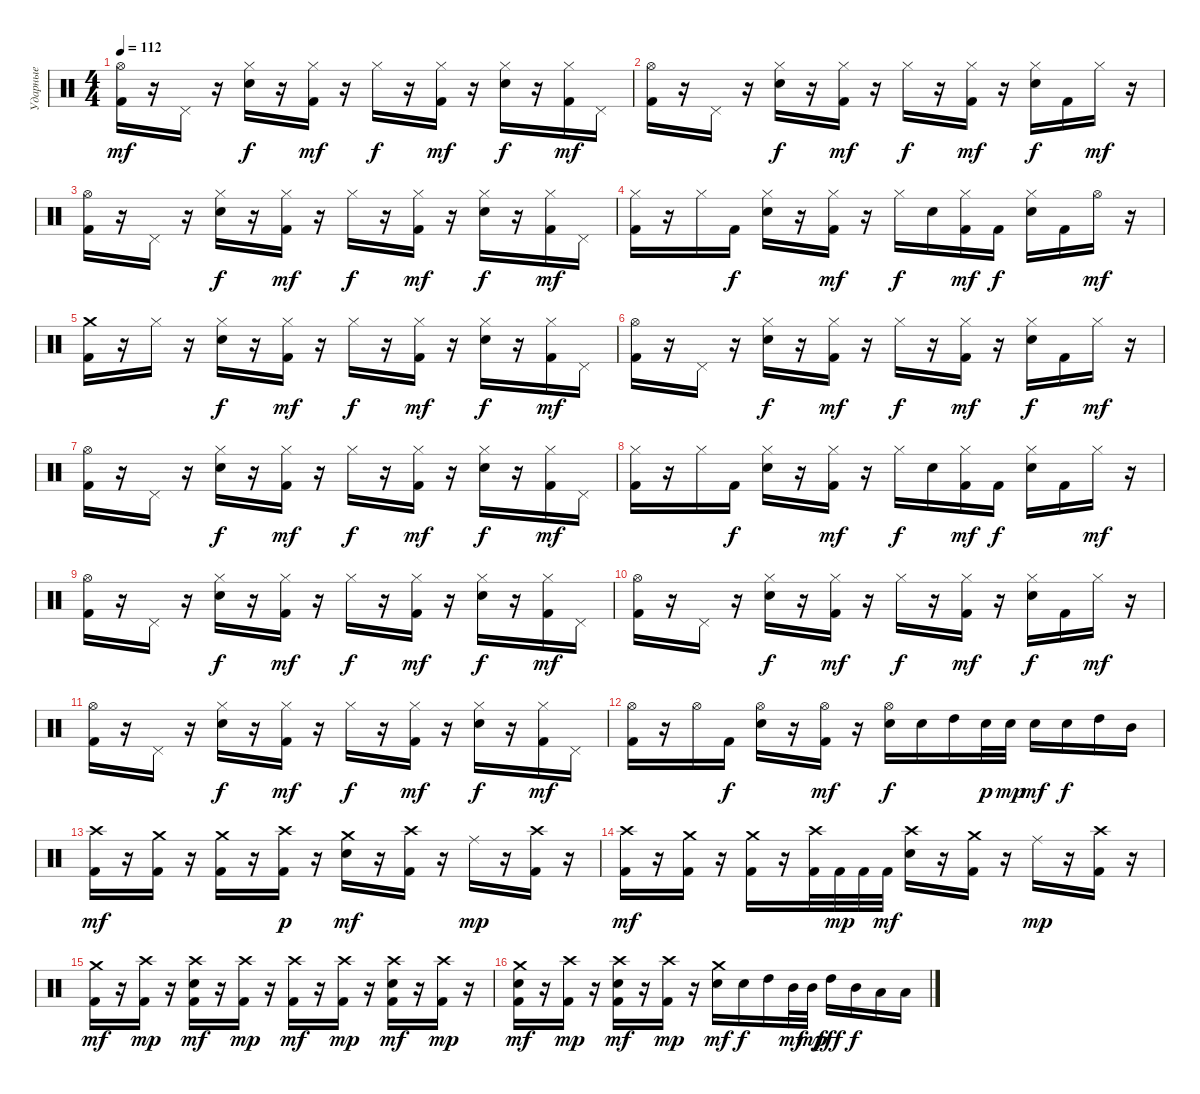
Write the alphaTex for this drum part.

\track ("Ударные" "Ударные") {instrument percussion}
\staff {score}
\articulation defaults
\ts (4 4)
\tempo 112
\clef neutral
\ks c
("Hi-Hat (open)" "Kick (hit) 2").16{dy mf} r.16 "Pedal Hi-Hat (hit)".16 r.16 ("Hi-Hat (closed)" "Electric Snare (hit)").16{dy f} r.16 ("Hi-Hat (closed)" "Kick (hit) 2").16{dy mf} r.16 "Hi-Hat (closed)".16{dy f} r.16 ("Hi-Hat (closed)" "Kick (hit) 2").16{dy mf} r.16 ("Hi-Hat (closed)" "Electric Snare (hit)").16{dy f} r.16 ("Hi-Hat (closed)" "Kick (hit) 2").16{dy mf} "Pedal Hi-Hat (hit)".16 |
("Hi-Hat (open)" "Kick (hit) 2").16 r.16 "Pedal Hi-Hat (hit)".16 r.16 ("Hi-Hat (closed)" "Electric Snare (hit)").16{dy f} r.16 ("Hi-Hat (closed)" "Kick (hit) 2").16{dy mf} r.16 "Hi-Hat (closed)".16{dy f} r.16 ("Hi-Hat (closed)" "Kick (hit) 2").16{dy mf} r.16 ("Hi-Hat (closed)" "Electric Snare (hit)").16{dy f} "Kick (hit) 2".16 "Hi-Hat (closed)".16{dy mf} r.16 |
("Hi-Hat (open)" "Kick (hit) 2").16 r.16 "Pedal Hi-Hat (hit)".16 r.16 ("Hi-Hat (closed)" "Electric Snare (hit)").16{dy f} r.16 ("Hi-Hat (closed)" "Kick (hit) 2").16{dy mf} r.16 "Hi-Hat (closed)".16{dy f} r.16 ("Hi-Hat (closed)" "Kick (hit) 2").16{dy mf} r.16 ("Hi-Hat (closed)" "Electric Snare (hit)").16{dy f} r.16 ("Hi-Hat (closed)" "Kick (hit) 2").16{dy mf} "Pedal Hi-Hat (hit)".16 |
("Hi-Hat (closed)" "Kick (hit) 2").16 r.16 "Hi-Hat (closed)".16 "Kick (hit) 2".16{dy f} ("Hi-Hat (closed)" "Electric Snare (hit)").16 r.16 ("Hi-Hat (closed)" "Kick (hit) 2").16{dy mf} r.16 "Hi-Hat (closed)".16{dy f} "Electric Snare (hit)".16 ("Hi-Hat (closed)" "Kick (hit) 2").16{dy mf} "Kick (hit) 2".16{dy f} ("Hi-Hat (closed)" "Electric Snare (hit)").16 "Kick (hit) 2".16 "Hi-Hat (open)".16{dy mf} r.16 |
("Crash medium (hit)" "Kick (hit) 2").16 r.16 "Hi-Hat (closed)".16 r.16 ("Hi-Hat (closed)" "Electric Snare (hit)").16{dy f} r.16 ("Hi-Hat (closed)" "Kick (hit) 2").16{dy mf} r.16 "Hi-Hat (closed)".16{dy f} r.16 ("Hi-Hat (closed)" "Kick (hit) 2").16{dy mf} r.16 ("Hi-Hat (closed)" "Electric Snare (hit)").16{dy f} r.16 ("Hi-Hat (closed)" "Kick (hit) 2").16{dy mf} "Pedal Hi-Hat (hit)".16 |
("Hi-Hat (open)" "Kick (hit) 2").16 r.16 "Pedal Hi-Hat (hit)".16 r.16 ("Hi-Hat (closed)" "Electric Snare (hit)").16{dy f} r.16 ("Hi-Hat (closed)" "Kick (hit) 2").16{dy mf} r.16 "Hi-Hat (closed)".16{dy f} r.16 ("Hi-Hat (closed)" "Kick (hit) 2").16{dy mf} r.16 ("Hi-Hat (closed)" "Electric Snare (hit)").16{dy f} "Kick (hit) 2".16 "Hi-Hat (closed)".16{dy mf} r.16 |
("Hi-Hat (open)" "Kick (hit) 2").16 r.16 "Pedal Hi-Hat (hit)".16 r.16 ("Hi-Hat (closed)" "Electric Snare (hit)").16{dy f} r.16 ("Hi-Hat (closed)" "Kick (hit) 2").16{dy mf} r.16 "Hi-Hat (closed)".16{dy f} r.16 ("Hi-Hat (closed)" "Kick (hit) 2").16{dy mf} r.16 ("Hi-Hat (closed)" "Electric Snare (hit)").16{dy f} r.16 ("Hi-Hat (closed)" "Kick (hit) 2").16{dy mf} "Pedal Hi-Hat (hit)".16 |
("Hi-Hat (closed)" "Kick (hit) 2").16 r.16 "Hi-Hat (closed)".16 "Kick (hit) 2".16{dy f} ("Hi-Hat (closed)" "Electric Snare (hit)").16 r.16 ("Hi-Hat (closed)" "Kick (hit) 2").16{dy mf} r.16 "Hi-Hat (closed)".16{dy f} "Electric Snare (hit)".16 ("Hi-Hat (closed)" "Kick (hit) 2").16{dy mf} "Kick (hit) 2".16{dy f} ("Hi-Hat (closed)" "Electric Snare (hit)").16 "Kick (hit) 2".16 "Hi-Hat (closed)".16{dy mf} r.16 |
("Hi-Hat (open)" "Kick (hit) 2").16 r.16 "Pedal Hi-Hat (hit)".16 r.16 ("Hi-Hat (closed)" "Electric Snare (hit)").16{dy f} r.16 ("Hi-Hat (closed)" "Kick (hit) 2").16{dy mf} r.16 "Hi-Hat (closed)".16{dy f} r.16 ("Hi-Hat (closed)" "Kick (hit) 2").16{dy mf} r.16 ("Hi-Hat (closed)" "Electric Snare (hit)").16{dy f} r.16 ("Hi-Hat (closed)" "Kick (hit) 2").16{dy mf} "Pedal Hi-Hat (hit)".16 |
("Hi-Hat (open)" "Kick (hit) 2").16 r.16 "Pedal Hi-Hat (hit)".16 r.16 ("Hi-Hat (closed)" "Electric Snare (hit)").16{dy f} r.16 ("Hi-Hat (closed)" "Kick (hit) 2").16{dy mf} r.16 "Hi-Hat (closed)".16{dy f} r.16 ("Hi-Hat (closed)" "Kick (hit) 2").16{dy mf} r.16 ("Hi-Hat (closed)" "Electric Snare (hit)").16{dy f} "Kick (hit) 2".16 "Hi-Hat (closed)".16{dy mf} r.16 |
("Hi-Hat (open)" "Kick (hit) 2").16 r.16 "Pedal Hi-Hat (hit)".16 r.16 ("Hi-Hat (closed)" "Electric Snare (hit)").16{dy f} r.16 ("Hi-Hat (closed)" "Kick (hit) 2").16{dy mf} r.16 "Hi-Hat (closed)".16{dy f} r.16 ("Hi-Hat (closed)" "Kick (hit) 2").16{dy mf} r.16 ("Hi-Hat (closed)" "Electric Snare (hit)").16{dy f} r.16 ("Hi-Hat (closed)" "Kick (hit) 2").16{dy mf} "Pedal Hi-Hat (hit)".16 |
("Hi-Hat (open)" "Kick (hit) 2").16 r.16 "Hi-Hat (open)".16 "Kick (hit) 2".16{dy f} ("Hi-Hat (open)" "Electric Snare (hit)").16 r.16 ("Hi-Hat (open)" "Kick (hit) 2").16{dy mf} r.16 ("Hi-Hat (open)" "Electric Snare (hit)").16{dy f} "Electric Snare (hit)".16 "High Tom (hit)".16 "Electric Snare (hit)".32{dy p} "Electric Snare (hit)".32{dy mp} "Electric Snare (hit)".16{dy mf} "Electric Snare (hit)".16{dy f} "High Tom (hit)".16 "Mid Tom (hit)".16 |
("Crash high (hit)" "Kick (hit) 2").16{dy mf} r.16 ("Crash medium (hit)" "Kick (hit) 2").16 r.16 ("Crash medium (hit)" "Kick (hit) 2").16 r.16 ("Crash high (hit)" "Kick (hit) 2").16{dy p} r.16 ("Crash medium (hit)" "Electric Snare (hit)").16{dy mf} r.16 ("Crash high (hit)" "Kick (hit) 2").16 r.16 "Ride (middle)".16{dy mp} r.16 ("Crash high (hit)" "Kick (hit) 2").16 r.16 |
("Crash high (hit)" "Kick (hit) 2").16{dy mf} r.16 ("Crash medium (hit)" "Kick (hit) 2").16 r.16 ("Crash medium (hit)" "Kick (hit) 2").16 r.16 ("Crash high (hit)" "Kick (hit) 2").32 "Kick (hit) 2".32{dy mp} "Kick (hit) 2".32 "Kick (hit) 2".32{dy mf} ("Crash high (hit)" "Electric Snare (hit)").16 r.16 ("Crash medium (hit)" "Kick (hit) 2").16 r.16 "Ride (middle)".16{dy mp} r.16 ("Crash high (hit)" "Kick (hit) 2").16 r.16 |
("Crash medium (hit)" "Kick (hit) 2").16{dy mf} r.16 ("Crash high (hit)" "Kick (hit) 2").16{dy mp} r.16 ("Crash high (hit)" "Electric Snare (hit)" "Kick (hit) 2").16{dy mf} r.16 ("Crash high (hit)" "Kick (hit) 2").16{dy mp} r.16 ("Crash high (hit)" "Kick (hit) 2").16{dy mf} r.16 ("Crash high (hit)" "Kick (hit) 2").16{dy mp} r.16 ("Crash high (hit)" "Electric Snare (hit)" "Kick (hit) 2").16{dy mf} r.16 ("Crash high (hit)" "Kick (hit) 2").16{dy mp} r.16 |
("Crash medium (hit)" "Electric Snare (hit)" "Kick (hit) 2").16{dy mf} r.16 ("Crash high (hit)" "Kick (hit) 2").16{dy mp} r.16 ("Crash high (hit)" "Electric Snare (hit)" "Kick (hit) 2").16{dy mf} r.16 ("Crash high (hit)" "Kick (hit) 2").16{dy mp} r.16 ("Crash medium (hit)" "Electric Snare (hit)").16{dy mf} "Electric Snare (hit)".16{dy f} "High Tom (hit)".16 "Mid Tom (hit)".32{dy mf} "Mid Tom (hit)".32{dy mp} "High Tom (hit)".16{dy fff} "Mid Tom (hit)".16{dy f} "Low Tom (hit)".16 "Low Tom (hit)".16
